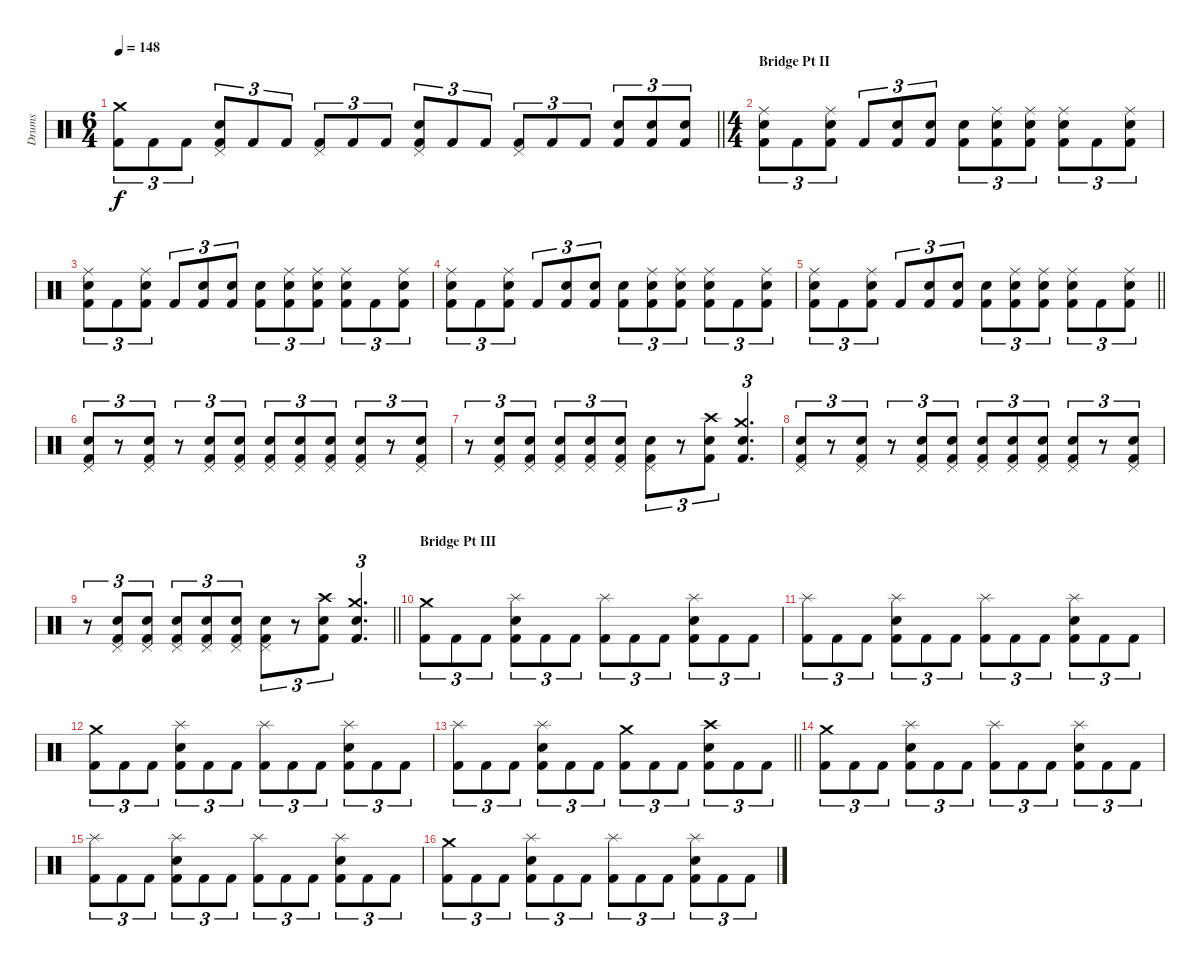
\track ("Drums" "Drums") {instrument percussion}
\staff {score}
\articulation defaults
\ts (6 4)
\tempo 148
\clef neutral
\barLineRight lightlight
\ks c
("Kick (hit) 2" "Crash medium (hit)").8{tu (3 2) dy f} "Kick (hit) 2".8{tu (3 2)} "Kick (hit) 2".8{tu (3 2)} ("Kick (hit) 2" "Snare (hit) 2" "Pedal Hi-Hat (hit)").8{tu (3 2)} "Kick (hit) 2".8{tu (3 2)} "Kick (hit) 2".8{tu (3 2)} ("Kick (hit) 2" "Pedal Hi-Hat (hit)").8{tu (3 2)} "Kick (hit) 2".8{tu (3 2)} "Kick (hit) 2".8{tu (3 2)} ("Kick (hit) 2" "Snare (hit) 2" "Pedal Hi-Hat (hit)").8{tu (3 2)} "Kick (hit) 2".8{tu (3 2)} "Kick (hit) 2".8{tu (3 2)} ("Kick (hit) 2" "Pedal Hi-Hat (hit)").8{tu (3 2)} "Kick (hit) 2".8{tu (3 2)} "Kick (hit) 2".8{tu (3 2)} ("Kick (hit) 2" "Snare (hit) 2").8{tu (3 2)} ("Kick (hit) 2" "Snare (hit) 2").8{tu (3 2)} ("Kick (hit) 2" "Snare (hit) 2").8{tu (3 2)} |
\ts (4 4)
\section ("" "Bridge Pt II")
("Kick (hit) 2" "Snare (hit) 2" "Ride (middle)").8{tu (3 2) volume 14} "Kick (hit) 2".8{tu (3 2)} ("Kick (hit) 2" "Snare (hit) 2" "Ride (middle)").8{tu (3 2)} "Kick (hit) 2".8{tu (3 2)} ("Kick (hit) 2" "Snare (hit) 2").8{tu (3 2)} ("Kick (hit) 2" "Snare (hit) 2").8{tu (3 2)} ("Kick (hit) 2" "Snare (hit) 2").8{tu (3 2)} ("Kick (hit) 2" "Snare (hit) 2" "Ride (middle)").8{tu (3 2)} ("Kick (hit) 2" "Snare (hit) 2" "Ride (middle)").8{tu (3 2)} ("Kick (hit) 2" "Snare (hit) 2" "Ride (middle)").8{tu (3 2)} "Kick (hit) 2".8{tu (3 2)} ("Kick (hit) 2" "Snare (hit) 2" "Ride (middle)").8{tu (3 2)} |
("Kick (hit) 2" "Snare (hit) 2" "Ride (middle)").8{tu (3 2)} "Kick (hit) 2".8{tu (3 2)} ("Kick (hit) 2" "Snare (hit) 2" "Ride (middle)").8{tu (3 2)} "Kick (hit) 2".8{tu (3 2)} ("Kick (hit) 2" "Snare (hit) 2").8{tu (3 2)} ("Kick (hit) 2" "Snare (hit) 2").8{tu (3 2)} ("Kick (hit) 2" "Snare (hit) 2").8{tu (3 2)} ("Kick (hit) 2" "Snare (hit) 2" "Ride (middle)").8{tu (3 2)} ("Kick (hit) 2" "Snare (hit) 2" "Ride (middle)").8{tu (3 2)} ("Kick (hit) 2" "Snare (hit) 2" "Ride (middle)").8{tu (3 2)} "Kick (hit) 2".8{tu (3 2)} ("Kick (hit) 2" "Snare (hit) 2" "Ride (middle)").8{tu (3 2)} |
("Kick (hit) 2" "Snare (hit) 2" "Ride (middle)").8{tu (3 2)} "Kick (hit) 2".8{tu (3 2)} ("Kick (hit) 2" "Snare (hit) 2" "Ride (middle)").8{tu (3 2)} "Kick (hit) 2".8{tu (3 2)} ("Kick (hit) 2" "Snare (hit) 2").8{tu (3 2)} ("Kick (hit) 2" "Snare (hit) 2").8{tu (3 2)} ("Kick (hit) 2" "Snare (hit) 2").8{tu (3 2)} ("Kick (hit) 2" "Snare (hit) 2" "Ride (middle)").8{tu (3 2)} ("Kick (hit) 2" "Snare (hit) 2" "Ride (middle)").8{tu (3 2)} ("Kick (hit) 2" "Snare (hit) 2" "Ride (middle)").8{tu (3 2)} "Kick (hit) 2".8{tu (3 2)} ("Kick (hit) 2" "Snare (hit) 2" "Ride (middle)").8{tu (3 2)} |
\barLineRight lightlight
("Kick (hit) 2" "Snare (hit) 2" "Ride (middle)").8{tu (3 2)} "Kick (hit) 2".8{tu (3 2)} ("Kick (hit) 2" "Snare (hit) 2" "Ride (middle)").8{tu (3 2)} "Kick (hit) 2".8{tu (3 2)} ("Kick (hit) 2" "Snare (hit) 2").8{tu (3 2)} ("Kick (hit) 2" "Snare (hit) 2").8{tu (3 2)} ("Kick (hit) 2" "Snare (hit) 2").8{tu (3 2)} ("Kick (hit) 2" "Snare (hit) 2" "Ride (middle)").8{tu (3 2)} ("Kick (hit) 2" "Snare (hit) 2" "Ride (middle)").8{tu (3 2)} ("Kick (hit) 2" "Snare (hit) 2" "Ride (middle)").8{tu (3 2)} "Kick (hit) 2".8{tu (3 2)} ("Kick (hit) 2" "Snare (hit) 2" "Ride (middle)").8{tu (3 2)} |
\section ("" "")
("Kick (hit) 2" "Snare (hit) 2" "Pedal Hi-Hat (hit)").8{tu (3 2)} r.8{tu (3 2)} ("Kick (hit) 2" "Snare (hit) 2" "Pedal Hi-Hat (hit)").8{tu (3 2)} r.8{tu (3 2)} ("Kick (hit) 2" "Snare (hit) 2" "Pedal Hi-Hat (hit)").8{tu (3 2)} ("Kick (hit) 2" "Snare (hit) 2" "Pedal Hi-Hat (hit)").8{tu (3 2)} ("Kick (hit) 2" "Snare (hit) 2" "Pedal Hi-Hat (hit)").8{tu (3 2)} ("Kick (hit) 2" "Snare (hit) 2" "Pedal Hi-Hat (hit)").8{tu (3 2)} ("Kick (hit) 2" "Snare (hit) 2" "Pedal Hi-Hat (hit)").8{tu (3 2)} ("Kick (hit) 2" "Snare (hit) 2" "Pedal Hi-Hat (hit)").8{tu (3 2)} r.8{tu (3 2)} ("Kick (hit) 2" "Snare (hit) 2" "Pedal Hi-Hat (hit)").8{tu (3 2)} |
r.8{tu (3 2)} ("Kick (hit) 2" "Snare (hit) 2" "Pedal Hi-Hat (hit)").8{tu (3 2)} ("Kick (hit) 2" "Snare (hit) 2" "Pedal Hi-Hat (hit)").8{tu (3 2)} ("Kick (hit) 2" "Snare (hit) 2" "Pedal Hi-Hat (hit)").8{tu (3 2)} ("Kick (hit) 2" "Snare (hit) 2" "Pedal Hi-Hat (hit)").8{tu (3 2)} ("Kick (hit) 2" "Snare (hit) 2" "Pedal Hi-Hat (hit)").8{tu (3 2)} ("Kick (hit) 2" "Snare (hit) 2" "Pedal Hi-Hat (hit)").8{tu (3 2)} r.8{tu (3 2)} ("Kick (hit) 2" "Snare (hit) 2" "Crash high (hit)").8{tu (3 2)} ("Kick (hit) 2" "Snare (hit) 2" "Crash medium (hit)").4{d tu (3 2)} |
("Kick (hit) 2" "Snare (hit) 2" "Pedal Hi-Hat (hit)").8{tu (3 2)} r.8{tu (3 2)} ("Kick (hit) 2" "Snare (hit) 2" "Pedal Hi-Hat (hit)").8{tu (3 2)} r.8{tu (3 2)} ("Kick (hit) 2" "Snare (hit) 2" "Pedal Hi-Hat (hit)").8{tu (3 2)} ("Kick (hit) 2" "Snare (hit) 2" "Pedal Hi-Hat (hit)").8{tu (3 2)} ("Kick (hit) 2" "Snare (hit) 2" "Pedal Hi-Hat (hit)").8{tu (3 2)} ("Kick (hit) 2" "Snare (hit) 2" "Pedal Hi-Hat (hit)").8{tu (3 2)} ("Kick (hit) 2" "Snare (hit) 2" "Pedal Hi-Hat (hit)").8{tu (3 2)} ("Kick (hit) 2" "Snare (hit) 2" "Pedal Hi-Hat (hit)").8{tu (3 2)} r.8{tu (3 2)} ("Kick (hit) 2" "Snare (hit) 2" "Pedal Hi-Hat (hit)").8{tu (3 2)} |
\barLineRight lightlight
r.8{tu (3 2)} ("Kick (hit) 2" "Snare (hit) 2" "Pedal Hi-Hat (hit)").8{tu (3 2)} ("Kick (hit) 2" "Snare (hit) 2" "Pedal Hi-Hat (hit)").8{tu (3 2)} ("Kick (hit) 2" "Snare (hit) 2" "Pedal Hi-Hat (hit)").8{tu (3 2)} ("Kick (hit) 2" "Snare (hit) 2" "Pedal Hi-Hat (hit)").8{tu (3 2)} ("Kick (hit) 2" "Snare (hit) 2" "Pedal Hi-Hat (hit)").8{tu (3 2)} ("Kick (hit) 2" "Snare (hit) 2" "Pedal Hi-Hat (hit)").8{tu (3 2)} r.8{tu (3 2)} ("Kick (hit) 2" "Snare (hit) 2" "Crash high (hit)").8{tu (3 2)} ("Kick (hit) 2" "Snare (hit) 2" "Crash medium (hit)").4{d tu (3 2)} |
\section ("" "Bridge Pt III")
("Kick (hit) 2" "Crash medium (hit)").8{tu (3 2) volume 16} "Kick (hit) 2".8{tu (3 2)} "Kick (hit) 2".8{tu (3 2)} ("Kick (hit) 2" "Snare (hit) 2" "Splash (hit)").8{tu (3 2)} "Kick (hit) 2".8{tu (3 2)} "Kick (hit) 2".8{tu (3 2)} ("Kick (hit) 2" "Splash (hit)").8{tu (3 2)} "Kick (hit) 2".8{tu (3 2)} "Kick (hit) 2".8{tu (3 2)} ("Kick (hit) 2" "Snare (hit) 2" "Splash (hit)").8{tu (3 2)} "Kick (hit) 2".8{tu (3 2)} "Kick (hit) 2".8{tu (3 2)} |
("Kick (hit) 2" "Splash (hit)").8{tu (3 2)} "Kick (hit) 2".8{tu (3 2)} "Kick (hit) 2".8{tu (3 2)} ("Kick (hit) 2" "Snare (hit) 2" "Splash (hit)").8{tu (3 2)} "Kick (hit) 2".8{tu (3 2)} "Kick (hit) 2".8{tu (3 2)} ("Kick (hit) 2" "Splash (hit)").8{tu (3 2)} "Kick (hit) 2".8{tu (3 2)} "Kick (hit) 2".8{tu (3 2)} ("Kick (hit) 2" "Snare (hit) 2" "Splash (hit)").8{tu (3 2)} "Kick (hit) 2".8{tu (3 2)} "Kick (hit) 2".8{tu (3 2)} |
("Kick (hit) 2" "Crash medium (hit)").8{tu (3 2)} "Kick (hit) 2".8{tu (3 2)} "Kick (hit) 2".8{tu (3 2)} ("Kick (hit) 2" "Snare (hit) 2" "Splash (hit)").8{tu (3 2)} "Kick (hit) 2".8{tu (3 2)} "Kick (hit) 2".8{tu (3 2)} ("Kick (hit) 2" "Splash (hit)").8{tu (3 2)} "Kick (hit) 2".8{tu (3 2)} "Kick (hit) 2".8{tu (3 2)} ("Kick (hit) 2" "Snare (hit) 2" "Splash (hit)").8{tu (3 2)} "Kick (hit) 2".8{tu (3 2)} "Kick (hit) 2".8{tu (3 2)} |
\barLineRight lightlight
("Kick (hit) 2" "Splash (hit)").8{tu (3 2)} "Kick (hit) 2".8{tu (3 2)} "Kick (hit) 2".8{tu (3 2)} ("Kick (hit) 2" "Snare (hit) 2" "Splash (hit)").8{tu (3 2)} "Kick (hit) 2".8{tu (3 2)} "Kick (hit) 2".8{tu (3 2)} ("Kick (hit) 2" "Crash medium (hit)").8{tu (3 2)} "Kick (hit) 2".8{tu (3 2)} "Kick (hit) 2".8{tu (3 2)} ("Kick (hit) 2" "Snare (hit) 2" "Crash high (hit)").8{tu (3 2)} "Kick (hit) 2".8{tu (3 2)} "Kick (hit) 2".8{tu (3 2)} |
\section ("" "")
("Kick (hit) 2" "Crash medium (hit)").8{tu (3 2)} "Kick (hit) 2".8{tu (3 2)} "Kick (hit) 2".8{tu (3 2)} ("Kick (hit) 2" "Snare (hit) 2" "Splash (hit)").8{tu (3 2)} "Kick (hit) 2".8{tu (3 2)} "Kick (hit) 2".8{tu (3 2)} ("Kick (hit) 2" "Splash (hit)").8{tu (3 2)} "Kick (hit) 2".8{tu (3 2)} "Kick (hit) 2".8{tu (3 2)} ("Kick (hit) 2" "Snare (hit) 2" "Splash (hit)").8{tu (3 2)} "Kick (hit) 2".8{tu (3 2)} "Kick (hit) 2".8{tu (3 2)} |
("Kick (hit) 2" "Splash (hit)").8{tu (3 2)} "Kick (hit) 2".8{tu (3 2)} "Kick (hit) 2".8{tu (3 2)} ("Kick (hit) 2" "Snare (hit) 2" "Splash (hit)").8{tu (3 2)} "Kick (hit) 2".8{tu (3 2)} "Kick (hit) 2".8{tu (3 2)} ("Kick (hit) 2" "Splash (hit)").8{tu (3 2)} "Kick (hit) 2".8{tu (3 2)} "Kick (hit) 2".8{tu (3 2)} ("Kick (hit) 2" "Snare (hit) 2" "Splash (hit)").8{tu (3 2)} "Kick (hit) 2".8{tu (3 2)} "Kick (hit) 2".8{tu (3 2)} |
("Kick (hit) 2" "Crash medium (hit)").8{tu (3 2)} "Kick (hit) 2".8{tu (3 2)} "Kick (hit) 2".8{tu (3 2)} ("Kick (hit) 2" "Snare (hit) 2" "Splash (hit)").8{tu (3 2)} "Kick (hit) 2".8{tu (3 2)} "Kick (hit) 2".8{tu (3 2)} ("Kick (hit) 2" "Splash (hit)").8{tu (3 2)} "Kick (hit) 2".8{tu (3 2)} "Kick (hit) 2".8{tu (3 2)} ("Kick (hit) 2" "Snare (hit) 2" "Splash (hit)").8{tu (3 2)} "Kick (hit) 2".8{tu (3 2)} "Kick (hit) 2".8{tu (3 2)}
